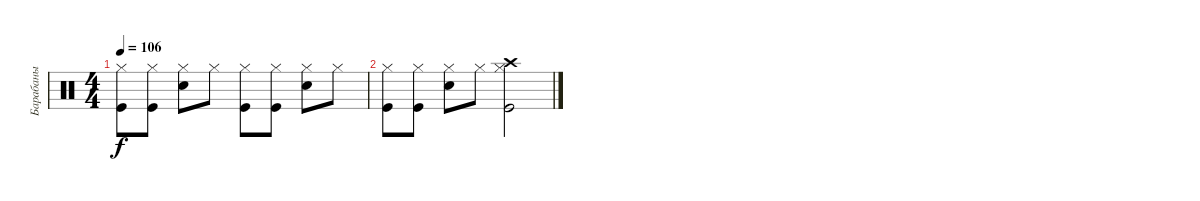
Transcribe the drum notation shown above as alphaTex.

\track ("Барабаны" "Барабаны") {instrument percussion}
\staff {score}
\articulation defaults
\ts (4 4)
\tempo 106
\clef neutral
\ks c
("Kick (hit)" "Hi-Hat (closed)").8{dy f} ("Kick (hit)" "Hi-Hat (closed)").8 ("Snare (hit) 2" "Hi-Hat (closed)").8 "Hi-Hat (closed)".8 ("Kick (hit)" "Hi-Hat (closed)").8 ("Kick (hit)" "Hi-Hat (closed)").8 ("Snare (hit) 2" "Hi-Hat (closed)").8 "Hi-Hat (closed)".8 |
("Kick (hit)" "Hi-Hat (closed)").8 ("Kick (hit)" "Hi-Hat (closed)").8 ("Snare (hit) 2" "Hi-Hat (closed)").8 "Hi-Hat (closed)".8 ("Kick (hit)" "Hi-Hat (closed)" "Crash high (hit)").2
